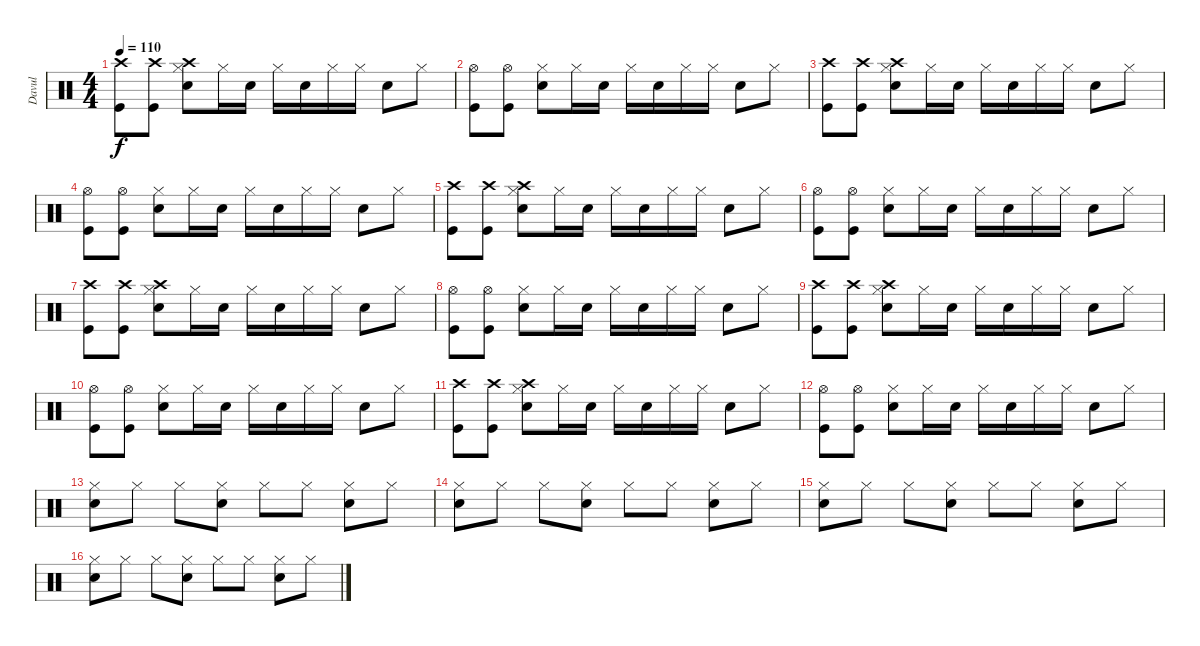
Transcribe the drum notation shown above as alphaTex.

\track ("Davul" "Davul") {instrument percussion}
\staff {score}
\articulation defaults
\ts (4 4)
\tempo 110
\clef neutral
\ks c
("Kick (hit)" "Crash high (hit)").8{dy f} ("Kick (hit)" "Crash high (hit)").8 ("Snare (hit) 2" "Crash high (hit)" "Hi-Hat (closed)").8 "Hi-Hat (closed)".16 "Snare (hit) 2".16 "Hi-Hat (closed)".16 "Snare (hit) 2".16 "Hi-Hat (closed)".16 "Hi-Hat (closed)".16 "Snare (hit) 2".8 "Hi-Hat (closed)".8 |
("Kick (hit)" "Hi-Hat (open)").8 ("Kick (hit)" "Hi-Hat (open)").8 ("Snare (hit) 2" "Hi-Hat (closed)").8 "Hi-Hat (closed)".16 "Snare (hit) 2".16 "Hi-Hat (closed)".16 "Snare (hit) 2".16 "Hi-Hat (closed)".16 "Hi-Hat (closed)".16 "Snare (hit) 2".8 "Hi-Hat (closed)".8 |
("Kick (hit)" "Crash high (hit)").8 ("Kick (hit)" "Crash high (hit)").8 ("Snare (hit) 2" "Crash high (hit)" "Hi-Hat (closed)").8 "Hi-Hat (closed)".16 "Snare (hit) 2".16 "Hi-Hat (closed)".16 "Snare (hit) 2".16 "Hi-Hat (closed)".16 "Hi-Hat (closed)".16 "Snare (hit) 2".8 "Hi-Hat (closed)".8 |
("Kick (hit)" "Hi-Hat (open)").8 ("Kick (hit)" "Hi-Hat (open)").8 ("Snare (hit) 2" "Hi-Hat (closed)").8 "Hi-Hat (closed)".16 "Snare (hit) 2".16 "Hi-Hat (closed)".16 "Snare (hit) 2".16 "Hi-Hat (closed)".16 "Hi-Hat (closed)".16 "Snare (hit) 2".8 "Hi-Hat (closed)".8 |
("Kick (hit)" "Crash high (hit)").8 ("Kick (hit)" "Crash high (hit)").8 ("Snare (hit) 2" "Crash high (hit)" "Hi-Hat (closed)").8 "Hi-Hat (closed)".16 "Snare (hit) 2".16 "Hi-Hat (closed)".16 "Snare (hit) 2".16 "Hi-Hat (closed)".16 "Hi-Hat (closed)".16 "Snare (hit) 2".8 "Hi-Hat (closed)".8 |
("Kick (hit)" "Hi-Hat (open)").8 ("Kick (hit)" "Hi-Hat (open)").8 ("Snare (hit) 2" "Hi-Hat (closed)").8 "Hi-Hat (closed)".16 "Snare (hit) 2".16 "Hi-Hat (closed)".16 "Snare (hit) 2".16 "Hi-Hat (closed)".16 "Hi-Hat (closed)".16 "Snare (hit) 2".8 "Hi-Hat (closed)".8 |
("Kick (hit)" "Crash high (hit)").8 ("Kick (hit)" "Crash high (hit)").8 ("Snare (hit) 2" "Crash high (hit)" "Hi-Hat (closed)").8 "Hi-Hat (closed)".16 "Snare (hit) 2".16 "Hi-Hat (closed)".16 "Snare (hit) 2".16 "Hi-Hat (closed)".16 "Hi-Hat (closed)".16 "Snare (hit) 2".8 "Hi-Hat (closed)".8 |
("Kick (hit)" "Hi-Hat (open)").8 ("Kick (hit)" "Hi-Hat (open)").8 ("Snare (hit) 2" "Hi-Hat (closed)").8 "Hi-Hat (closed)".16 "Snare (hit) 2".16 "Hi-Hat (closed)".16 "Snare (hit) 2".16 "Hi-Hat (closed)".16 "Hi-Hat (closed)".16 "Snare (hit) 2".8 "Hi-Hat (closed)".8 |
("Kick (hit)" "Crash high (hit)").8 ("Kick (hit)" "Crash high (hit)").8 ("Snare (hit) 2" "Crash high (hit)" "Hi-Hat (closed)").8 "Hi-Hat (closed)".16 "Snare (hit) 2".16 "Hi-Hat (closed)".16 "Snare (hit) 2".16 "Hi-Hat (closed)".16 "Hi-Hat (closed)".16 "Snare (hit) 2".8 "Hi-Hat (closed)".8 |
("Kick (hit)" "Hi-Hat (open)").8 ("Kick (hit)" "Hi-Hat (open)").8 ("Snare (hit) 2" "Hi-Hat (closed)").8 "Hi-Hat (closed)".16 "Snare (hit) 2".16 "Hi-Hat (closed)".16 "Snare (hit) 2".16 "Hi-Hat (closed)".16 "Hi-Hat (closed)".16 "Snare (hit) 2".8 "Hi-Hat (closed)".8 |
("Kick (hit)" "Crash high (hit)").8 ("Kick (hit)" "Crash high (hit)").8 ("Snare (hit) 2" "Crash high (hit)" "Hi-Hat (closed)").8 "Hi-Hat (closed)".16 "Snare (hit) 2".16 "Hi-Hat (closed)".16 "Snare (hit) 2".16 "Hi-Hat (closed)".16 "Hi-Hat (closed)".16 "Snare (hit) 2".8 "Hi-Hat (closed)".8 |
("Kick (hit)" "Hi-Hat (open)").8 ("Kick (hit)" "Hi-Hat (open)").8 ("Snare (hit) 2" "Hi-Hat (closed)").8 "Hi-Hat (closed)".16 "Snare (hit) 2".16 "Hi-Hat (closed)".16 "Snare (hit) 2".16 "Hi-Hat (closed)".16 "Hi-Hat (closed)".16 "Snare (hit) 2".8 "Hi-Hat (closed)".8 |
("Electric Snare (hit)" "Hi-Hat (closed)").8 "Hi-Hat (closed)".8 "Hi-Hat (closed)".8 ("Electric Snare (hit)" "Hi-Hat (closed)").8 "Hi-Hat (closed)".8 "Hi-Hat (closed)".8 ("Electric Snare (hit)" "Hi-Hat (closed)").8 "Hi-Hat (closed)".8 |
("Electric Snare (hit)" "Hi-Hat (closed)").8 "Hi-Hat (closed)".8 "Hi-Hat (closed)".8 ("Electric Snare (hit)" "Hi-Hat (closed)").8 "Hi-Hat (closed)".8 "Hi-Hat (closed)".8 ("Electric Snare (hit)" "Hi-Hat (closed)").8 "Hi-Hat (closed)".8 |
("Electric Snare (hit)" "Hi-Hat (closed)").8 "Hi-Hat (closed)".8 "Hi-Hat (closed)".8 ("Electric Snare (hit)" "Hi-Hat (closed)").8 "Hi-Hat (closed)".8 "Hi-Hat (closed)".8 ("Electric Snare (hit)" "Hi-Hat (closed)").8 "Hi-Hat (closed)".8 |
("Electric Snare (hit)" "Hi-Hat (closed)").8 "Hi-Hat (closed)".8 "Hi-Hat (closed)".8 ("Electric Snare (hit)" "Hi-Hat (closed)").8 "Hi-Hat (closed)".8 "Hi-Hat (closed)".8 ("Electric Snare (hit)" "Hi-Hat (closed)").8 "Hi-Hat (closed)".8
